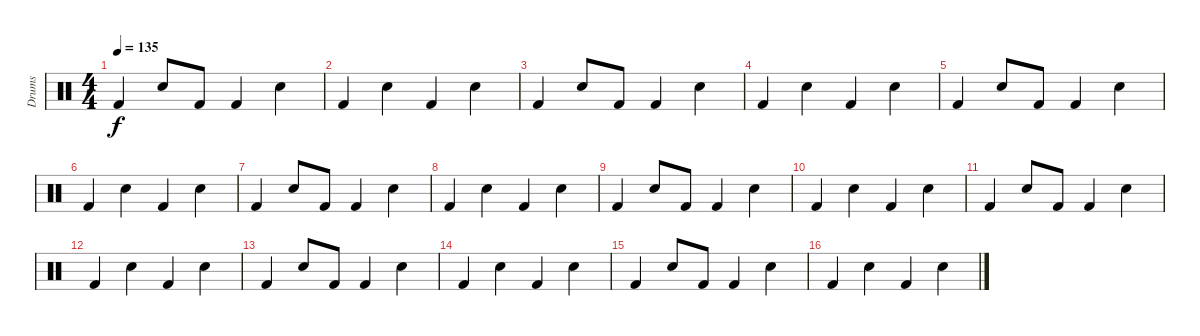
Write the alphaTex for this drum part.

\track ("Drums" "Drums") {instrument percussion}
\staff {score}
\articulation defaults
\ts (4 4)
\tempo 135
\clef neutral
\ks c "Kick (hit) 2".4{dy f} "Electric Snare (hit)".8 "Kick (hit) 2".8 "Kick (hit) 2".4 "Electric Snare (hit)".4
|
"Kick (hit) 2".4 "Electric Snare (hit)".4 "Kick (hit) 2".4 "Electric Snare (hit)".4 |
"Kick (hit) 2".4 "Electric Snare (hit)".8 "Kick (hit) 2".8 "Kick (hit) 2".4 "Electric Snare (hit)".4 |
"Kick (hit) 2".4 "Electric Snare (hit)".4 "Kick (hit) 2".4 "Electric Snare (hit)".4 |
"Kick (hit) 2".4 "Electric Snare (hit)".8 "Kick (hit) 2".8 "Kick (hit) 2".4 "Electric Snare (hit)".4 |
"Kick (hit) 2".4 "Electric Snare (hit)".4 "Kick (hit) 2".4 "Electric Snare (hit)".4 |
"Kick (hit) 2".4 "Electric Snare (hit)".8 "Kick (hit) 2".8 "Kick (hit) 2".4 "Electric Snare (hit)".4 |
"Kick (hit) 2".4 "Electric Snare (hit)".4 "Kick (hit) 2".4 "Electric Snare (hit)".4 |
"Kick (hit) 2".4 "Electric Snare (hit)".8 "Kick (hit) 2".8 "Kick (hit) 2".4 "Electric Snare (hit)".4 |
"Kick (hit) 2".4 "Electric Snare (hit)".4 "Kick (hit) 2".4 "Electric Snare (hit)".4 |
"Kick (hit) 2".4 "Electric Snare (hit)".8 "Kick (hit) 2".8 "Kick (hit) 2".4 "Electric Snare (hit)".4 |
"Kick (hit) 2".4 "Electric Snare (hit)".4 "Kick (hit) 2".4 "Electric Snare (hit)".4 |
"Kick (hit) 2".4 "Electric Snare (hit)".8 "Kick (hit) 2".8 "Kick (hit) 2".4 "Electric Snare (hit)".4 |
"Kick (hit) 2".4 "Electric Snare (hit)".4 "Kick (hit) 2".4 "Electric Snare (hit)".4 |
"Kick (hit) 2".4 "Electric Snare (hit)".8 "Kick (hit) 2".8 "Kick (hit) 2".4 "Electric Snare (hit)".4 |
"Kick (hit) 2".4 "Electric Snare (hit)".4 "Kick (hit) 2".4 "Electric Snare (hit)".4
